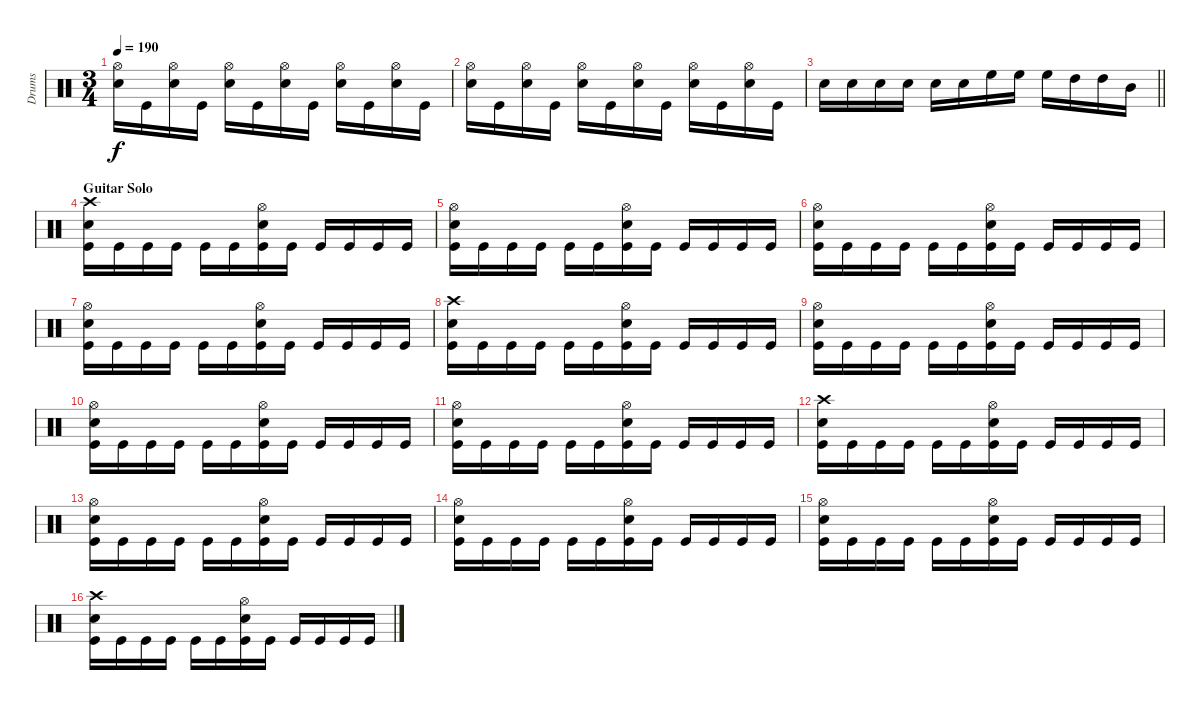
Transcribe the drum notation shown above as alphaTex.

\track ("Drums" "Drums") {instrument percussion}
\staff {score}
\articulation defaults
\ts (3 4)
\tempo 190
\clef neutral
\ks c
("Hi-Hat (open)" "Snare (hit) 2").16{dy f} "Kick (hit)".16 ("Hi-Hat (open)" "Snare (hit) 2").16 "Kick (hit)".16 ("Hi-Hat (open)" "Snare (hit) 2").16 "Kick (hit)".16 ("Hi-Hat (open)" "Snare (hit) 2").16 "Kick (hit)".16 ("Hi-Hat (open)" "Snare (hit) 2").16 "Kick (hit)".16 ("Hi-Hat (open)" "Snare (hit) 2").16 "Kick (hit)".16 |
("Hi-Hat (open)" "Snare (hit) 2").16 "Kick (hit)".16 ("Hi-Hat (open)" "Snare (hit) 2").16 "Kick (hit)".16 ("Hi-Hat (open)" "Snare (hit) 2").16 "Kick (hit)".16 ("Hi-Hat (open)" "Snare (hit) 2").16 "Kick (hit)".16 ("Hi-Hat (open)" "Snare (hit) 2").16 "Kick (hit)".16 ("Hi-Hat (open)" "Snare (hit) 2").16 "Kick (hit)".16 |
\barLineRight lightlight "Electric Snare (hit)".16 "Snare (hit) 2".16 "Snare (hit) 2".16 "Snare (hit) 2".16 "Electric Snare (hit)".16 "Snare (hit) 2".16 "High Floor Tom (hit)".16 "High Floor Tom (hit)".16 "High Floor Tom (hit)".16 "High Tom (hit)".16 "High Tom (hit)".16 "Mid Tom (hit)".16
|
\section ("" "Guitar Solo")
("Crash high (hit)" "Electric Snare (hit)" "Kick (hit)").16 "Kick (hit)".16 "Kick (hit)".16 "Kick (hit)".16 "Kick (hit)".16 "Kick (hit)".16 ("Hi-Hat (open)" "Electric Snare (hit)" "Kick (hit)").16 "Kick (hit)".16 "Kick (hit)".16 "Kick (hit)".16 "Kick (hit)".16 "Kick (hit)".16 |
("Hi-Hat (open)" "Electric Snare (hit)" "Kick (hit)").16 "Kick (hit)".16 "Kick (hit)".16 "Kick (hit)".16 "Kick (hit)".16 "Kick (hit)".16 ("Hi-Hat (open)" "Electric Snare (hit)" "Kick (hit)").16 "Kick (hit)".16 "Kick (hit)".16 "Kick (hit)".16 "Kick (hit)".16 "Kick (hit)".16 |
("Hi-Hat (open)" "Electric Snare (hit)" "Kick (hit)").16 "Kick (hit)".16 "Kick (hit)".16 "Kick (hit)".16 "Kick (hit)".16 "Kick (hit)".16 ("Hi-Hat (open)" "Electric Snare (hit)" "Kick (hit)").16 "Kick (hit)".16 "Kick (hit)".16 "Kick (hit)".16 "Kick (hit)".16 "Kick (hit)".16 |
("Hi-Hat (open)" "Electric Snare (hit)" "Kick (hit)").16 "Kick (hit)".16 "Kick (hit)".16 "Kick (hit)".16 "Kick (hit)".16 "Kick (hit)".16 ("Hi-Hat (open)" "Electric Snare (hit)" "Kick (hit)").16 "Kick (hit)".16 "Kick (hit)".16 "Kick (hit)".16 "Kick (hit)".16 "Kick (hit)".16 |
("Crash high (hit)" "Electric Snare (hit)" "Kick (hit)").16 "Kick (hit)".16 "Kick (hit)".16 "Kick (hit)".16 "Kick (hit)".16 "Kick (hit)".16 ("Hi-Hat (open)" "Electric Snare (hit)" "Kick (hit)").16 "Kick (hit)".16 "Kick (hit)".16 "Kick (hit)".16 "Kick (hit)".16 "Kick (hit)".16 |
("Hi-Hat (open)" "Electric Snare (hit)" "Kick (hit)").16 "Kick (hit)".16 "Kick (hit)".16 "Kick (hit)".16 "Kick (hit)".16 "Kick (hit)".16 ("Hi-Hat (open)" "Electric Snare (hit)" "Kick (hit)").16 "Kick (hit)".16 "Kick (hit)".16 "Kick (hit)".16 "Kick (hit)".16 "Kick (hit)".16 |
("Hi-Hat (open)" "Electric Snare (hit)" "Kick (hit)").16 "Kick (hit)".16 "Kick (hit)".16 "Kick (hit)".16 "Kick (hit)".16 "Kick (hit)".16 ("Hi-Hat (open)" "Electric Snare (hit)" "Kick (hit)").16 "Kick (hit)".16 "Kick (hit)".16 "Kick (hit)".16 "Kick (hit)".16 "Kick (hit)".16 |
("Hi-Hat (open)" "Electric Snare (hit)" "Kick (hit)").16 "Kick (hit)".16 "Kick (hit)".16 "Kick (hit)".16 "Kick (hit)".16 "Kick (hit)".16 ("Hi-Hat (open)" "Electric Snare (hit)" "Kick (hit)").16 "Kick (hit)".16 "Kick (hit)".16 "Kick (hit)".16 "Kick (hit)".16 "Kick (hit)".16 |
("Crash high (hit)" "Electric Snare (hit)" "Kick (hit)").16 "Kick (hit)".16 "Kick (hit)".16 "Kick (hit)".16 "Kick (hit)".16 "Kick (hit)".16 ("Hi-Hat (open)" "Electric Snare (hit)" "Kick (hit)").16 "Kick (hit)".16 "Kick (hit)".16 "Kick (hit)".16 "Kick (hit)".16 "Kick (hit)".16 |
("Hi-Hat (open)" "Electric Snare (hit)" "Kick (hit)").16 "Kick (hit)".16 "Kick (hit)".16 "Kick (hit)".16 "Kick (hit)".16 "Kick (hit)".16 ("Hi-Hat (open)" "Electric Snare (hit)" "Kick (hit)").16 "Kick (hit)".16 "Kick (hit)".16 "Kick (hit)".16 "Kick (hit)".16 "Kick (hit)".16 |
("Hi-Hat (open)" "Electric Snare (hit)" "Kick (hit)").16 "Kick (hit)".16 "Kick (hit)".16 "Kick (hit)".16 "Kick (hit)".16 "Kick (hit)".16 ("Hi-Hat (open)" "Electric Snare (hit)" "Kick (hit)").16 "Kick (hit)".16 "Kick (hit)".16 "Kick (hit)".16 "Kick (hit)".16 "Kick (hit)".16 |
("Hi-Hat (open)" "Electric Snare (hit)" "Kick (hit)").16 "Kick (hit)".16 "Kick (hit)".16 "Kick (hit)".16 "Kick (hit)".16 "Kick (hit)".16 ("Hi-Hat (open)" "Electric Snare (hit)" "Kick (hit)").16 "Kick (hit)".16 "Kick (hit)".16 "Kick (hit)".16 "Kick (hit)".16 "Kick (hit)".16 |
("Crash high (hit)" "Electric Snare (hit)" "Kick (hit)").16 "Kick (hit)".16 "Kick (hit)".16 "Kick (hit)".16 "Kick (hit)".16 "Kick (hit)".16 ("Hi-Hat (open)" "Electric Snare (hit)" "Kick (hit)").16 "Kick (hit)".16 "Kick (hit)".16 "Kick (hit)".16 "Kick (hit)".16 "Kick (hit)".16
